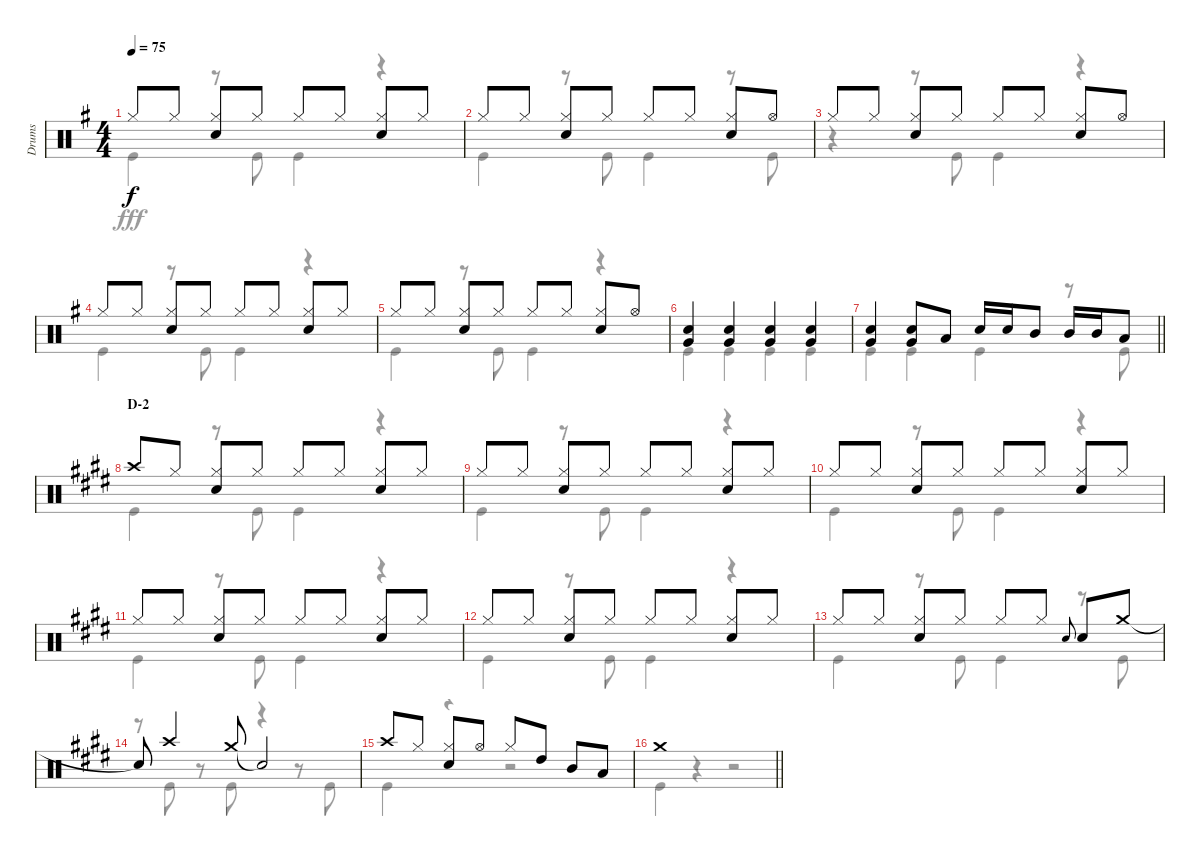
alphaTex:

\track ("Drums" "Drums") {instrument percussion}
\staff {score}
\articulation defaults
\voice
\ts (4 4)
\tempo 75
\clef neutral
\ks g "Hi-Hat (closed)".8{dy f} "Hi-Hat (closed)".8
("Hi-Hat (closed)" "Snare (hit) 2").8 "Hi-Hat (closed)".8 "Hi-Hat (closed)".8 "Hi-Hat (closed)".8 ("Hi-Hat (closed)" "Snare (hit) 2").8 "Hi-Hat (closed)".8 |
"Hi-Hat (closed)".8 "Hi-Hat (closed)".8 ("Hi-Hat (closed)" "Snare (hit) 2").8 "Hi-Hat (closed)".8 "Hi-Hat (closed)".8 "Hi-Hat (closed)".8 ("Hi-Hat (closed)" "Snare (hit) 2").8 "Hi-Hat (open)".8 |
"Hi-Hat (closed)".8 "Hi-Hat (closed)".8 ("Hi-Hat (closed)" "Snare (hit) 2").8 "Hi-Hat (closed)".8 "Hi-Hat (closed)".8 "Hi-Hat (closed)".8 ("Hi-Hat (closed)" "Snare (hit) 2").8 "Hi-Hat (open)".8 |
"Hi-Hat (closed)".8 "Hi-Hat (closed)".8 ("Hi-Hat (closed)" "Snare (hit) 2").8 "Hi-Hat (closed)".8 "Hi-Hat (closed)".8 "Hi-Hat (closed)".8 ("Hi-Hat (closed)" "Snare (hit) 2").8 "Hi-Hat (closed)".8 |
"Hi-Hat (closed)".8 "Hi-Hat (closed)".8 ("Hi-Hat (closed)" "Snare (hit) 2").8 "Hi-Hat (closed)".8 "Hi-Hat (closed)".8 "Hi-Hat (closed)".8 ("Hi-Hat (closed)" "Snare (hit) 2").8 "Hi-Hat (open)".8 |
("Snare (hit) 2" "Very Low Tom (hit)").4 ("Snare (hit) 2" "Very Low Tom (hit)").4 ("Snare (hit) 2" "Very Low Tom (hit)").4 ("Snare (hit) 2" "Very Low Tom (hit)").4 |
\barLineRight lightlight
("Snare (hit) 2" "Very Low Tom (hit)").4 ("Snare (hit) 2" "Very Low Tom (hit)").8 "Low Tom (hit)".8 "Snare (hit) 2".16 "Snare (hit) 2".16 "Mid Tom (hit)".8 "Mid Tom (hit)".16 "Mid Tom (hit)".16 "Low Tom (hit)".8 |
\section ("" "D-2")
\ks e "Crash high (hit)".8 "Hi-Hat (closed)".8
("Hi-Hat (closed)" "Snare (hit) 2").8 "Hi-Hat (closed)".8 "Hi-Hat (closed)".8 "Hi-Hat (closed)".8 ("Hi-Hat (closed)" "Snare (hit) 2").8 "Hi-Hat (closed)".8 |
"Hi-Hat (closed)".8 "Hi-Hat (closed)".8 ("Hi-Hat (closed)" "Snare (hit) 2").8 "Hi-Hat (closed)".8 "Hi-Hat (closed)".8 "Hi-Hat (closed)".8 ("Hi-Hat (closed)" "Snare (hit) 2").8 "Hi-Hat (closed)".8 |
"Hi-Hat (closed)".8 "Hi-Hat (closed)".8 ("Hi-Hat (closed)" "Snare (hit) 2").8 "Hi-Hat (closed)".8 "Hi-Hat (closed)".8 "Hi-Hat (closed)".8 ("Hi-Hat (closed)" "Snare (hit) 2").8 "Hi-Hat (closed)".8 |
"Hi-Hat (closed)".8 "Hi-Hat (closed)".8 ("Hi-Hat (closed)" "Snare (hit) 2").8 "Hi-Hat (closed)".8 "Hi-Hat (closed)".8 "Hi-Hat (closed)".8 ("Hi-Hat (closed)" "Snare (hit) 2").8 "Hi-Hat (closed)".8 |
"Hi-Hat (closed)".8 "Hi-Hat (closed)".8 ("Hi-Hat (closed)" "Snare (hit) 2").8 "Hi-Hat (closed)".8 "Hi-Hat (closed)".8 "Hi-Hat (closed)".8 ("Hi-Hat (closed)" "Snare (hit) 2").8 "Hi-Hat (closed)".8 |
"Hi-Hat (closed)".8 "Hi-Hat (closed)".8 ("Hi-Hat (closed)" "Snare (hit) 2").8 "Hi-Hat (closed)".8 "Hi-Hat (closed)".8 "Hi-Hat (closed)".8 "Snare (hit) 2".8{gr onbeat} "Snare (hit) 2".8 "Crash medium (hit)".8 |
"Snare (hit)"{t}.8 "Crash high (hit)".4 "Crash medium (hit)".8 "Snare (hit)"{t}.2 |
"Crash high (hit)".8 "Hi-Hat (closed)".8 ("Hi-Hat (closed)" "Snare (hit) 2").8 "Hi-Hat (open)".8 "Hi-Hat (closed)".8 "High Tom (hit)".8 "Mid Tom (hit)".8 "Low Tom (hit)".8 |
\barLineRight lightlight "Crash medium (hit)".1
\voice
\clef neutral
\ottava regular
\simile none
\ks g "Kick (hit)".4{dy fff}
r.8 "Kick (hit)".8 "Kick (hit)".4 r.4 |
"Kick (hit)".4 r.8 "Kick (hit)".8 "Kick (hit)".4 r.8 "Kick (hit)".8 |
r.4 r.8 "Kick (hit)".8 "Kick (hit)".4 r.4 |
"Kick (hit)".4 r.8 "Kick (hit)".8 "Kick (hit)".4 r.4 |
"Kick (hit)".4 r.8 "Kick (hit)".8 "Kick (hit)".4 r.4 |
"Kick (hit)".4 "Kick (hit)".4 "Kick (hit)".4 "Kick (hit)".4 |
\barLineRight lightlight "Kick (hit)".4 "Kick (hit)".4 "Kick (hit)".4
r.8 "Kick (hit)".8 |
\ks e "Kick (hit)".4
r.8 "Kick (hit)".8 "Kick (hit)".4 r.4 |
"Kick (hit)".4 r.8 "Kick (hit)".8 "Kick (hit)".4 r.4 |
"Kick (hit)".4 r.8 "Kick (hit)".8 "Kick (hit)".4 r.4 |
"Kick (hit)".4 r.8 "Kick (hit)".8 "Kick (hit)".4 r.4 |
"Kick (hit)".4 r.8 "Kick (hit)".8 "Kick (hit)".4 r.4 |
"Kick (hit)".4 r.8 "Kick (hit)".8 "Kick (hit)".4 r.8 "Kick (hit)".8 |
r.8 "Kick (hit)".8 r.8 "Kick (hit)".8 r.4 r.8 "Kick (hit)".8 |
"Kick (hit)".4 r.4 r.2 |
\barLineRight lightlight "Kick (hit)".4
r.4 r.2
